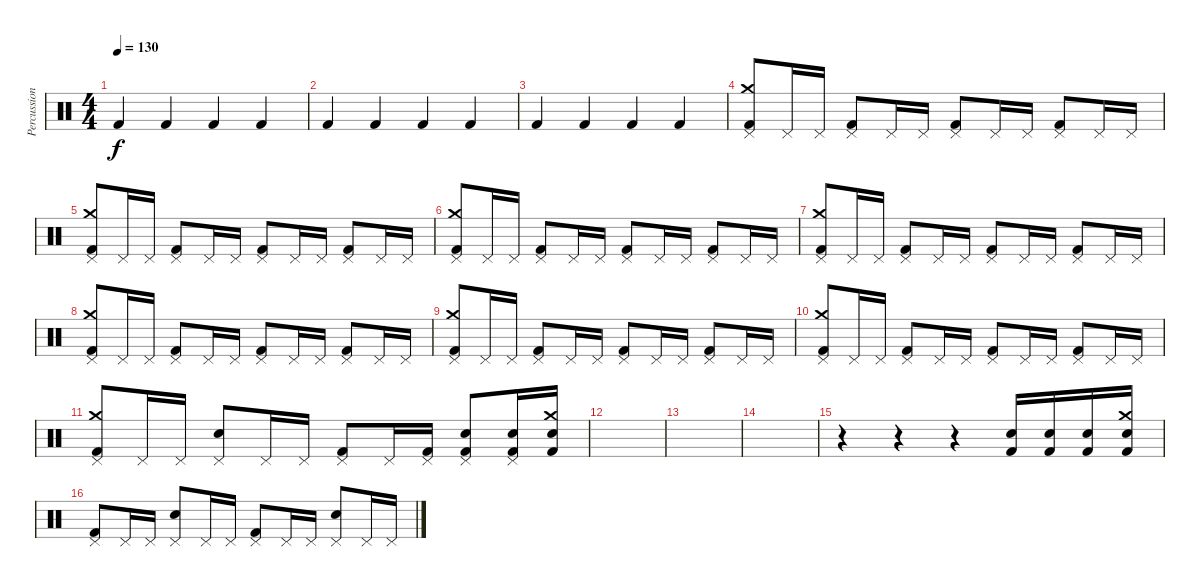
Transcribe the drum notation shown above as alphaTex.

\track ("Percussion" "Percussion") {instrument percussion}
\staff {score}
\articulation defaults
\ts (4 4)
\tempo 130
\clef neutral
\ks c "Kick (hit) 2".4{dy f} "Kick (hit) 2".4 "Kick (hit) 2".4 "Kick (hit) 2".4
|
"Kick (hit) 2".4 "Kick (hit) 2".4 "Kick (hit) 2".4 "Kick (hit) 2".4 |
"Kick (hit) 2".4 "Kick (hit) 2".4 "Kick (hit) 2".4 "Kick (hit) 2".4 |
("Crash medium (hit)" "Pedal Hi-Hat (hit)" "Kick (hit) 2").8 "Pedal Hi-Hat (hit)".16 "Pedal Hi-Hat (hit)".16 ("Pedal Hi-Hat (hit)" "Kick (hit) 2").8 "Pedal Hi-Hat (hit)".16 "Pedal Hi-Hat (hit)".16 ("Pedal Hi-Hat (hit)" "Kick (hit) 2").8 "Pedal Hi-Hat (hit)".16 "Pedal Hi-Hat (hit)".16 ("Pedal Hi-Hat (hit)" "Kick (hit) 2").8 "Pedal Hi-Hat (hit)".16 "Pedal Hi-Hat (hit)".16 |
("Crash medium (hit)" "Pedal Hi-Hat (hit)" "Kick (hit) 2").8 "Pedal Hi-Hat (hit)".16 "Pedal Hi-Hat (hit)".16 ("Pedal Hi-Hat (hit)" "Kick (hit) 2").8 "Pedal Hi-Hat (hit)".16 "Pedal Hi-Hat (hit)".16 ("Pedal Hi-Hat (hit)" "Kick (hit) 2").8 "Pedal Hi-Hat (hit)".16 "Pedal Hi-Hat (hit)".16 ("Pedal Hi-Hat (hit)" "Kick (hit) 2").8 "Pedal Hi-Hat (hit)".16 "Pedal Hi-Hat (hit)".16 |
("Crash medium (hit)" "Pedal Hi-Hat (hit)" "Kick (hit) 2").8 "Pedal Hi-Hat (hit)".16 "Pedal Hi-Hat (hit)".16 ("Pedal Hi-Hat (hit)" "Kick (hit) 2").8 "Pedal Hi-Hat (hit)".16 "Pedal Hi-Hat (hit)".16 ("Pedal Hi-Hat (hit)" "Kick (hit) 2").8 "Pedal Hi-Hat (hit)".16 "Pedal Hi-Hat (hit)".16 ("Pedal Hi-Hat (hit)" "Kick (hit) 2").8 "Pedal Hi-Hat (hit)".16 "Pedal Hi-Hat (hit)".16 |
("Crash medium (hit)" "Pedal Hi-Hat (hit)" "Kick (hit) 2").8 "Pedal Hi-Hat (hit)".16 "Pedal Hi-Hat (hit)".16 ("Pedal Hi-Hat (hit)" "Kick (hit) 2").8 "Pedal Hi-Hat (hit)".16 "Pedal Hi-Hat (hit)".16 ("Pedal Hi-Hat (hit)" "Kick (hit) 2").8 "Pedal Hi-Hat (hit)".16 "Pedal Hi-Hat (hit)".16 ("Pedal Hi-Hat (hit)" "Kick (hit) 2").8 "Pedal Hi-Hat (hit)".16 "Pedal Hi-Hat (hit)".16 |
("Crash medium (hit)" "Pedal Hi-Hat (hit)" "Kick (hit) 2").8 "Pedal Hi-Hat (hit)".16 "Pedal Hi-Hat (hit)".16 ("Pedal Hi-Hat (hit)" "Kick (hit) 2").8 "Pedal Hi-Hat (hit)".16 "Pedal Hi-Hat (hit)".16 ("Pedal Hi-Hat (hit)" "Kick (hit) 2").8 "Pedal Hi-Hat (hit)".16 "Pedal Hi-Hat (hit)".16 ("Pedal Hi-Hat (hit)" "Kick (hit) 2").8 "Pedal Hi-Hat (hit)".16 "Pedal Hi-Hat (hit)".16 |
("Crash medium (hit)" "Pedal Hi-Hat (hit)" "Kick (hit) 2").8 "Pedal Hi-Hat (hit)".16 "Pedal Hi-Hat (hit)".16 ("Pedal Hi-Hat (hit)" "Kick (hit) 2").8 "Pedal Hi-Hat (hit)".16 "Pedal Hi-Hat (hit)".16 ("Pedal Hi-Hat (hit)" "Kick (hit) 2").8 "Pedal Hi-Hat (hit)".16 "Pedal Hi-Hat (hit)".16 ("Pedal Hi-Hat (hit)" "Kick (hit) 2").8 "Pedal Hi-Hat (hit)".16 "Pedal Hi-Hat (hit)".16 |
("Crash medium (hit)" "Pedal Hi-Hat (hit)" "Kick (hit) 2").8 "Pedal Hi-Hat (hit)".16 "Pedal Hi-Hat (hit)".16 ("Pedal Hi-Hat (hit)" "Kick (hit) 2").8 "Pedal Hi-Hat (hit)".16 "Pedal Hi-Hat (hit)".16 ("Pedal Hi-Hat (hit)" "Kick (hit) 2").8 "Pedal Hi-Hat (hit)".16 "Pedal Hi-Hat (hit)".16 ("Pedal Hi-Hat (hit)" "Kick (hit) 2").8 "Pedal Hi-Hat (hit)".16 "Pedal Hi-Hat (hit)".16 |
("Crash medium (hit)" "Pedal Hi-Hat (hit)" "Kick (hit) 2").8 "Pedal Hi-Hat (hit)".16 "Pedal Hi-Hat (hit)".16 ("Pedal Hi-Hat (hit)" "Snare (hit) 2").8 "Pedal Hi-Hat (hit)".16 "Pedal Hi-Hat (hit)".16 ("Pedal Hi-Hat (hit)" "Kick (hit) 2").8 "Pedal Hi-Hat (hit)".16 ("Pedal Hi-Hat (hit)" "Kick (hit) 2").16 ("Pedal Hi-Hat (hit)" "Snare (hit) 2" "Kick (hit) 2").8 ("Pedal Hi-Hat (hit)" "Snare (hit) 2" "Kick (hit) 2").16 ("Crash medium (hit)" "Snare (hit) 2" "Kick (hit) 2").16 |
|
|
|
r.4 r.4 r.4 ("Snare (hit) 2" "Kick (hit) 2").16 ("Snare (hit) 2" "Kick (hit) 2").16 ("Snare (hit) 2" "Kick (hit) 2").16 ("Crash medium (hit)" "Snare (hit) 2" "Kick (hit) 2").16 |
("Pedal Hi-Hat (hit)" "Kick (hit) 2").8 "Pedal Hi-Hat (hit)".16 "Pedal Hi-Hat (hit)".16 ("Pedal Hi-Hat (hit)" "Snare (hit) 2").8 "Pedal Hi-Hat (hit)".16 "Pedal Hi-Hat (hit)".16 ("Pedal Hi-Hat (hit)" "Kick (hit) 2").8 "Pedal Hi-Hat (hit)".16 "Pedal Hi-Hat (hit)".16 ("Pedal Hi-Hat (hit)" "Snare (hit) 2").8 "Pedal Hi-Hat (hit)".16 "Pedal Hi-Hat (hit)".16
